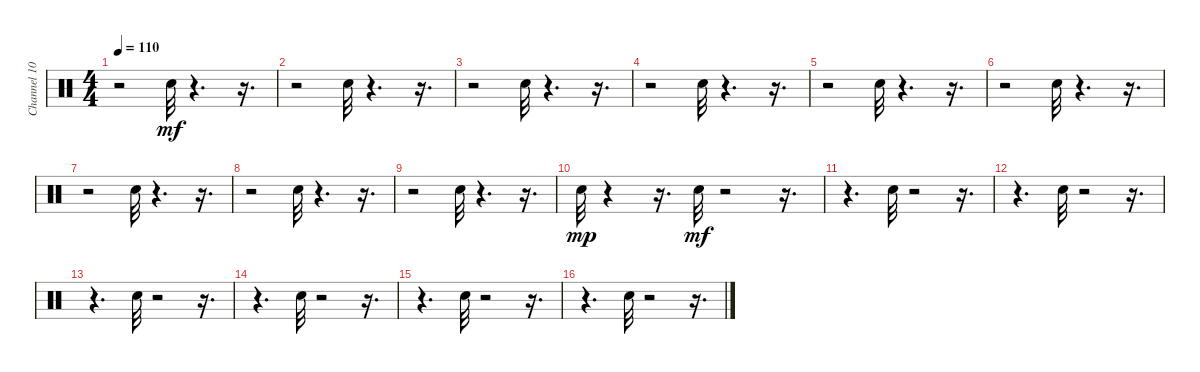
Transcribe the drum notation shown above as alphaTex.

\track ("Channel 10" "Channel 10") {instrument percussion}
\staff {score}
\articulation defaults
\ts (4 4)
\tempo 110
\clef neutral
\ks c
r.2{dy mf} "Electric Snare (hit)".32 r.4{d} r.16{d} |
r.2 "Electric Snare (hit)".32 r.4{d} r.16{d} |
r.2 "Electric Snare (hit)".32 r.4{d} r.16{d} |
r.2 "Electric Snare (hit)".32 r.4{d} r.16{d} |
r.2 "Electric Snare (hit)".32 r.4{d} r.16{d} |
r.2 "Electric Snare (hit)".32 r.4{d} r.16{d} |
r.2 "Electric Snare (hit)".32 r.4{d} r.16{d} |
r.2 "Electric Snare (hit)".32 r.4{d} r.16{d} |
r.2 "Electric Snare (hit)".32 r.4{d} r.16{d} |
"Electric Snare (hit)".32{dy mp} r.4 r.16{d} "Electric Snare (hit)".32{dy mf} r.2 r.16{d} |
r.4{d} "Electric Snare (hit)".32 r.2 r.16{d} |
r.4{d} "Electric Snare (hit)".32 r.2 r.16{d} |
r.4{d} "Electric Snare (hit)".32 r.2 r.16{d} |
r.4{d} "Electric Snare (hit)".32 r.2 r.16{d} |
r.4{d} "Electric Snare (hit)".32 r.2 r.16{d} |
r.4{d} "Electric Snare (hit)".32 r.2 r.16{d}
